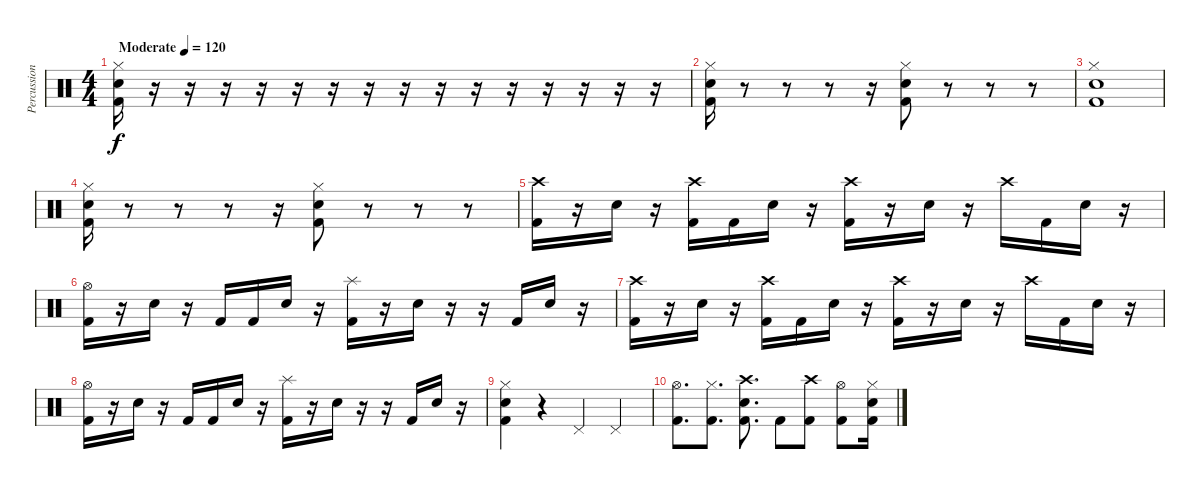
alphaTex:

\track ("Percussion" "Percussion") {instrument percussion}
\staff {score}
\articulation defaults
\ts (4 4)
\tempo (120 "Moderate")
\clef neutral
\ks c
("Hi-Hat (closed)" "Kick (hit) 2" "Snare (hit) 2").16{dy f} r.16 r.16 r.16 r.16 r.16 r.16 r.16 r.16 r.16 r.16 r.16 r.16 r.16 r.16 r.16 |
("Hi-Hat (closed)" "Kick (hit) 2" "Snare (hit) 2").16 r.8 r.8 r.8 r.16 ("Hi-Hat (closed)" "Kick (hit) 2" "Snare (hit) 2").8 r.8 r.8 r.8 |
("Hi-Hat (closed)" "Kick (hit) 2" "Snare (hit) 2").1 |
("Hi-Hat (closed)" "Kick (hit) 2" "Snare (hit) 2").16 r.8 r.8 r.8 r.16 ("Hi-Hat (closed)" "Kick (hit) 2" "Snare (hit) 2").8 r.8 r.8 r.8 |
("Crash high (hit)" "Kick (hit) 2").16 r.16 "Snare (hit) 2".16 r.16 ("Crash high (hit)" "Kick (hit) 2").16 "Kick (hit) 2".16 "Snare (hit) 2".16 r.16 ("Crash high (hit)" "Kick (hit) 2").16 r.16 "Snare (hit) 2".16 r.16 "Crash high (hit)".16 "Kick (hit) 2".16 "Snare (hit) 2".16 r.16 |
("Hi-Hat (open)" "Kick (hit) 2").16 r.16 "Snare (hit) 2".16 r.16 "Kick (hit) 2".16 "Kick (hit) 2".16 "Snare (hit) 2".16 r.16 ("Splash (hit)" "Kick (hit) 2").16 r.16 "Snare (hit) 2".16 r.16 r.16 "Kick (hit) 2".16 "Snare (hit) 2".16 r.16 |
("Crash high (hit)" "Kick (hit) 2").16 r.16 "Snare (hit) 2".16 r.16 ("Crash high (hit)" "Kick (hit) 2").16 "Kick (hit) 2".16 "Snare (hit) 2".16 r.16 ("Crash high (hit)" "Kick (hit) 2").16 r.16 "Snare (hit) 2".16 r.16 "Crash high (hit)".16 "Kick (hit) 2".16 "Snare (hit) 2".16 r.16 |
("Hi-Hat (open)" "Kick (hit) 2").16 r.16 "Snare (hit) 2".16 r.16 "Kick (hit) 2".16 "Kick (hit) 2".16 "Snare (hit) 2".16 r.16 ("Splash (hit)" "Kick (hit) 2").16 r.16 "Snare (hit) 2".16 r.16 r.16 "Kick (hit) 2".16 "Snare (hit) 2".16 r.16 |
("Hi-Hat (closed)" "Kick (hit) 2" "Snare (hit) 2").4 r.4 "Pedal Hi-Hat (hit)".4 "Pedal Hi-Hat (hit)".4 |
("Hi-Hat (open)" "Kick (hit) 2").8{d} ("Hi-Hat (closed)" "Kick (hit) 2").8{d} ("Crash high (hit)" "Kick (hit) 2" "Snare (hit) 2").8{d} "Kick (hit) 2".8 ("Crash high (hit)" "Kick (hit) 2").8 ("Hi-Hat (open)" "Kick (hit) 2").8 ("Hi-Hat (closed)" "Kick (hit) 2" "Snare (hit) 2").16
